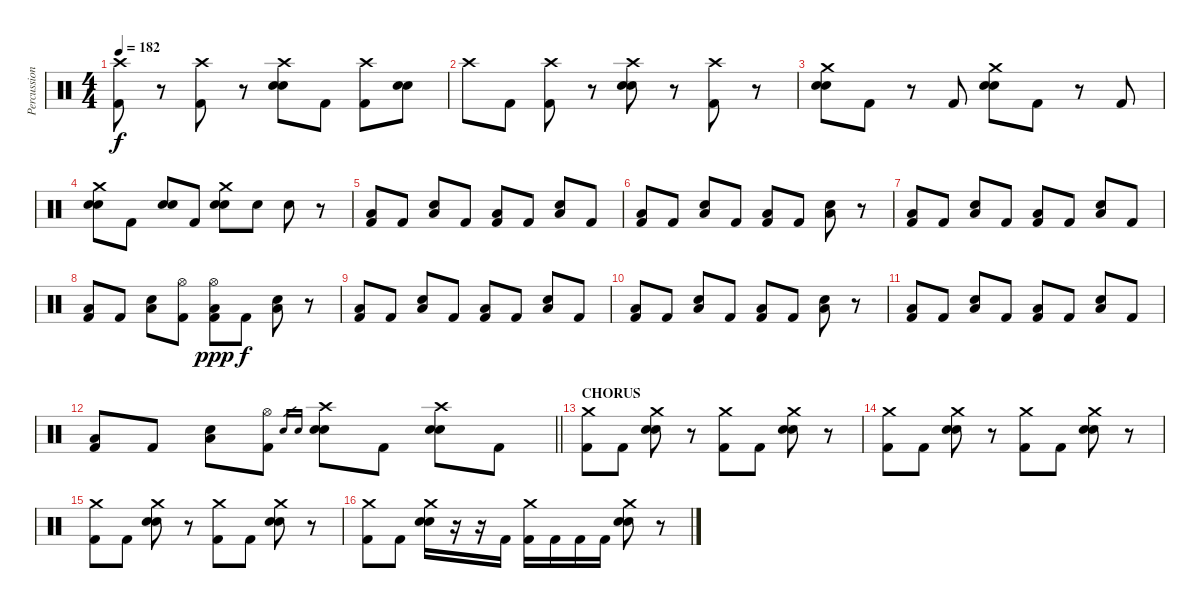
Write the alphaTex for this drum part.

\track ("Percussion" "Percussion") {instrument percussion}
\staff {score}
\articulation defaults
\ts (4 4)
\tempo 182
\clef neutral
\ks c
("Crash high (hit)" "Kick (hit) 2").8{dy f} r.8 ("Crash high (hit)" "Kick (hit) 2").8 r.8 ("Crash high (hit)" "Snare (hit) 2" "Electric Snare (hit)").8 "Kick (hit) 2".8 ("Crash high (hit)" "Kick (hit) 2").8 ("Snare (hit) 2" "Electric Snare (hit)").8 |
"Crash high (hit)".8 "Kick (hit) 2".8 ("Crash high (hit)" "Kick (hit) 2").8 r.8 ("Crash high (hit)" "Snare (hit) 2" "Electric Snare (hit)").8 r.8 ("Crash high (hit)" "Kick (hit) 2").8 r.8 |
("Crash medium (hit)" "Snare (hit) 2" "Electric Snare (hit)").8 "Kick (hit) 2".8 r.8 "Kick (hit) 2".8 ("Crash medium (hit)" "Snare (hit) 2" "Electric Snare (hit)").8 "Kick (hit) 2".8 r.8 "Kick (hit) 2".8 |
("Crash medium (hit)" "Snare (hit) 2" "Electric Snare (hit)").8 "Kick (hit) 2".8 ("Snare (hit) 2" "Electric Snare (hit)").8 "Kick (hit) 2".8 ("Crash medium (hit)" "Snare (hit) 2" "Electric Snare (hit)").8 "Electric Snare (hit)".8 "Electric Snare (hit)".8 r.8 |
("Low Floor Tom (hit)" "Kick (hit) 2").8 "Kick (hit) 2".8 ("Snare (hit) 2" "Low Floor Tom (hit)").8 "Kick (hit) 2".8 ("Low Floor Tom (hit)" "Kick (hit) 2").8 "Kick (hit) 2".8 ("Snare (hit) 2" "Low Floor Tom (hit)").8 "Kick (hit) 2".8 |
("Low Floor Tom (hit)" "Kick (hit) 2").8 "Kick (hit) 2".8 ("Snare (hit) 2" "Low Floor Tom (hit)").8 "Kick (hit) 2".8 ("Low Floor Tom (hit)" "Kick (hit) 2").8 "Kick (hit) 2".8 ("Snare (hit) 2" "Low Floor Tom (hit)").8 r.8 |
("Low Floor Tom (hit)" "Kick (hit) 2").8 "Kick (hit) 2".8 ("Snare (hit) 2" "Low Floor Tom (hit)").8 "Kick (hit) 2".8 ("Low Floor Tom (hit)" "Kick (hit) 2").8 "Kick (hit) 2".8 ("Snare (hit) 2" "Low Floor Tom (hit)").8 "Kick (hit) 2".8 |
("Low Floor Tom (hit)" "Kick (hit) 2").8 "Kick (hit) 2".8 ("Snare (hit) 2" "Low Floor Tom (hit)").8 ("Hi-Hat (open)" "Kick (hit) 2").8 ("Hi-Hat (open)" "Low Floor Tom (hit)" "Kick (hit) 2").8{dy ppp} "Kick (hit) 2".8{dy f} ("Snare (hit) 2" "Low Floor Tom (hit)").8 r.8 |
("Low Floor Tom (hit)" "Kick (hit) 2").8 "Kick (hit) 2".8 ("Snare (hit) 2" "Low Floor Tom (hit)").8 "Kick (hit) 2".8 ("Low Floor Tom (hit)" "Kick (hit) 2").8 "Kick (hit) 2".8 ("Snare (hit) 2" "Low Floor Tom (hit)").8 "Kick (hit) 2".8 |
("Low Floor Tom (hit)" "Kick (hit) 2").8 "Kick (hit) 2".8 ("Snare (hit) 2" "Low Floor Tom (hit)").8 "Kick (hit) 2".8 ("Low Floor Tom (hit)" "Kick (hit) 2").8 "Kick (hit) 2".8 ("Snare (hit) 2" "Low Floor Tom (hit)").8 r.8 |
("Low Floor Tom (hit)" "Kick (hit) 2").8 "Kick (hit) 2".8 ("Snare (hit) 2" "Low Floor Tom (hit)").8 "Kick (hit) 2".8 ("Low Floor Tom (hit)" "Kick (hit) 2").8 "Kick (hit) 2".8 ("Snare (hit) 2" "Low Floor Tom (hit)").8 "Kick (hit) 2".8 |
\barLineRight lightlight
("Low Floor Tom (hit)" "Kick (hit) 2").8 "Kick (hit) 2".8 ("Snare (hit) 2" "Low Floor Tom (hit)").8 ("Hi-Hat (open)" "Kick (hit) 2").8 "Snare (hit) 2".16{gr} "Electric Snare (hit)".16{gr} ("Crash high (hit)" "Snare (hit) 2" "Electric Snare (hit)").8 "Kick (hit) 2".8 ("Crash high (hit)" "Snare (hit) 2" "Electric Snare (hit)").8 "Kick (hit) 2".8 |
\section ("" "CHORUS")
("Crash medium (hit)" "Kick (hit) 2").8 "Kick (hit) 2".8 ("Crash medium (hit)" "Snare (hit) 2" "Electric Snare (hit)").8 r.8 ("Crash medium (hit)" "Kick (hit) 2").8 "Kick (hit) 2".8 ("Crash medium (hit)" "Snare (hit) 2" "Electric Snare (hit)").8 r.8 |
("Crash medium (hit)" "Kick (hit) 2").8 "Kick (hit) 2".8 ("Crash medium (hit)" "Snare (hit) 2" "Electric Snare (hit)").8 r.8 ("Crash medium (hit)" "Kick (hit) 2").8 "Kick (hit) 2".8 ("Crash medium (hit)" "Snare (hit) 2" "Electric Snare (hit)").8 r.8 |
("Crash medium (hit)" "Kick (hit) 2").8 "Kick (hit) 2".8 ("Crash medium (hit)" "Snare (hit) 2" "Electric Snare (hit)").8 r.8 ("Crash medium (hit)" "Kick (hit) 2").8 "Kick (hit) 2".8 ("Crash medium (hit)" "Snare (hit) 2" "Electric Snare (hit)").8 r.8 |
("Crash medium (hit)" "Kick (hit) 2").8 "Kick (hit) 2".8 ("Crash medium (hit)" "Snare (hit) 2" "Electric Snare (hit)").16 r.16 r.16 "Kick (hit) 2".16 ("Crash medium (hit)" "Kick (hit) 2").16 "Kick (hit) 2".16 "Kick (hit) 2".16 "Kick (hit) 2".16 ("Crash medium (hit)" "Snare (hit) 2" "Electric Snare (hit)").8 r.8
